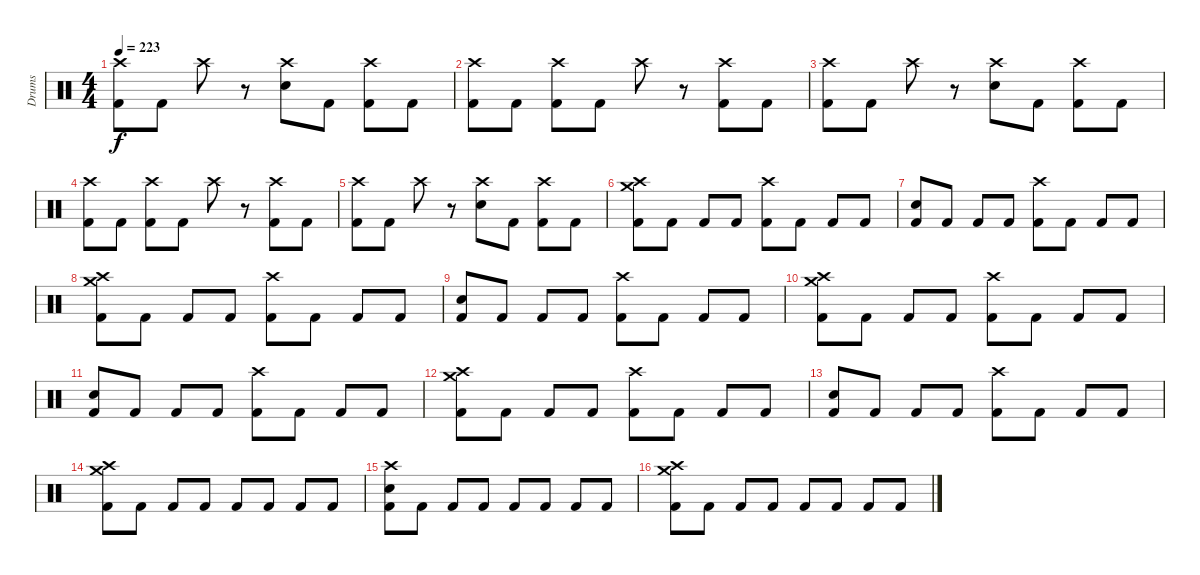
\track ("Drums" "Drums") {instrument percussion bank 177}
\staff {score}
\articulation defaults
\ts (4 4)
\tempo 223
\clef neutral
\ks c
("Crash high (hit)" "Kick (hit) 2").8{dy f} "Kick (hit) 2".8 "Crash high (hit)".8 r.8 ("Crash high (hit)" "Electric Snare (hit)").8 "Kick (hit) 2".8 ("Crash high (hit)" "Kick (hit) 2").8 "Kick (hit) 2".8 |
("Crash high (hit)" "Kick (hit) 2").8 "Kick (hit) 2".8 ("Crash high (hit)" "Kick (hit) 2").8 "Kick (hit) 2".8 "Crash high (hit)".8 r.8 ("Crash high (hit)" "Kick (hit) 2").8 "Kick (hit) 2".8 |
("Crash high (hit)" "Kick (hit) 2").8 "Kick (hit) 2".8 "Crash high (hit)".8 r.8 ("Crash high (hit)" "Electric Snare (hit)").8 "Kick (hit) 2".8 ("Crash high (hit)" "Kick (hit) 2").8 "Kick (hit) 2".8 |
("Crash high (hit)" "Kick (hit) 2").8 "Kick (hit) 2".8 ("Crash high (hit)" "Kick (hit) 2").8 "Kick (hit) 2".8 "Crash high (hit)".8 r.8 ("Crash high (hit)" "Kick (hit) 2").8 "Kick (hit) 2".8 |
("Crash high (hit)" "Kick (hit) 2").8 "Kick (hit) 2".8 "Crash high (hit)".8 r.8 ("Crash high (hit)" "Electric Snare (hit)").8 "Kick (hit) 2".8 ("Crash high (hit)" "Kick (hit) 2").8 "Kick (hit) 2".8 |
("Crash high (hit)" "Crash medium (hit)" "Kick (hit) 2").8 "Kick (hit) 2".8 "Kick (hit) 2".8 "Kick (hit) 2".8 ("Crash high (hit)" "Kick (hit) 2").8 "Kick (hit) 2".8 "Kick (hit) 2".8 "Kick (hit) 2".8 |
("Electric Snare (hit)" "Kick (hit) 2").8 "Kick (hit) 2".8 "Kick (hit) 2".8 "Kick (hit) 2".8 ("Crash high (hit)" "Kick (hit) 2").8 "Kick (hit) 2".8 "Kick (hit) 2".8 "Kick (hit) 2".8 |
("Crash high (hit)" "Crash medium (hit)" "Kick (hit) 2").8 "Kick (hit) 2".8 "Kick (hit) 2".8 "Kick (hit) 2".8 ("Crash high (hit)" "Kick (hit) 2").8 "Kick (hit) 2".8 "Kick (hit) 2".8 "Kick (hit) 2".8 |
("Electric Snare (hit)" "Kick (hit) 2").8 "Kick (hit) 2".8 "Kick (hit) 2".8 "Kick (hit) 2".8 ("Crash high (hit)" "Kick (hit) 2").8 "Kick (hit) 2".8 "Kick (hit) 2".8 "Kick (hit) 2".8 |
("Crash high (hit)" "Crash medium (hit)" "Kick (hit) 2").8 "Kick (hit) 2".8 "Kick (hit) 2".8 "Kick (hit) 2".8 ("Crash high (hit)" "Kick (hit) 2").8 "Kick (hit) 2".8 "Kick (hit) 2".8 "Kick (hit) 2".8 |
("Electric Snare (hit)" "Kick (hit) 2").8 "Kick (hit) 2".8 "Kick (hit) 2".8 "Kick (hit) 2".8 ("Crash high (hit)" "Kick (hit) 2").8 "Kick (hit) 2".8 "Kick (hit) 2".8 "Kick (hit) 2".8 |
("Crash high (hit)" "Crash medium (hit)" "Kick (hit) 2").8 "Kick (hit) 2".8 "Kick (hit) 2".8 "Kick (hit) 2".8 ("Crash high (hit)" "Kick (hit) 2").8 "Kick (hit) 2".8 "Kick (hit) 2".8 "Kick (hit) 2".8 |
("Electric Snare (hit)" "Kick (hit) 2").8 "Kick (hit) 2".8 "Kick (hit) 2".8 "Kick (hit) 2".8 ("Crash high (hit)" "Kick (hit) 2").8 "Kick (hit) 2".8 "Kick (hit) 2".8 "Kick (hit) 2".8 |
("Crash high (hit)" "Crash medium (hit)" "Kick (hit) 2").8 "Kick (hit) 2".8 "Kick (hit) 2".8 "Kick (hit) 2".8 "Kick (hit) 2".8 "Kick (hit) 2".8 "Kick (hit) 2".8 "Kick (hit) 2".8 |
("Crash high (hit)" "Electric Snare (hit)" "Kick (hit) 2").8 "Kick (hit) 2".8 "Kick (hit) 2".8 "Kick (hit) 2".8 "Kick (hit) 2".8 "Kick (hit) 2".8 "Kick (hit) 2".8 "Kick (hit) 2".8 |
("Crash high (hit)" "Crash medium (hit)" "Kick (hit) 2").8 "Kick (hit) 2".8 "Kick (hit) 2".8 "Kick (hit) 2".8 "Kick (hit) 2".8 "Kick (hit) 2".8 "Kick (hit) 2".8 "Kick (hit) 2".8
